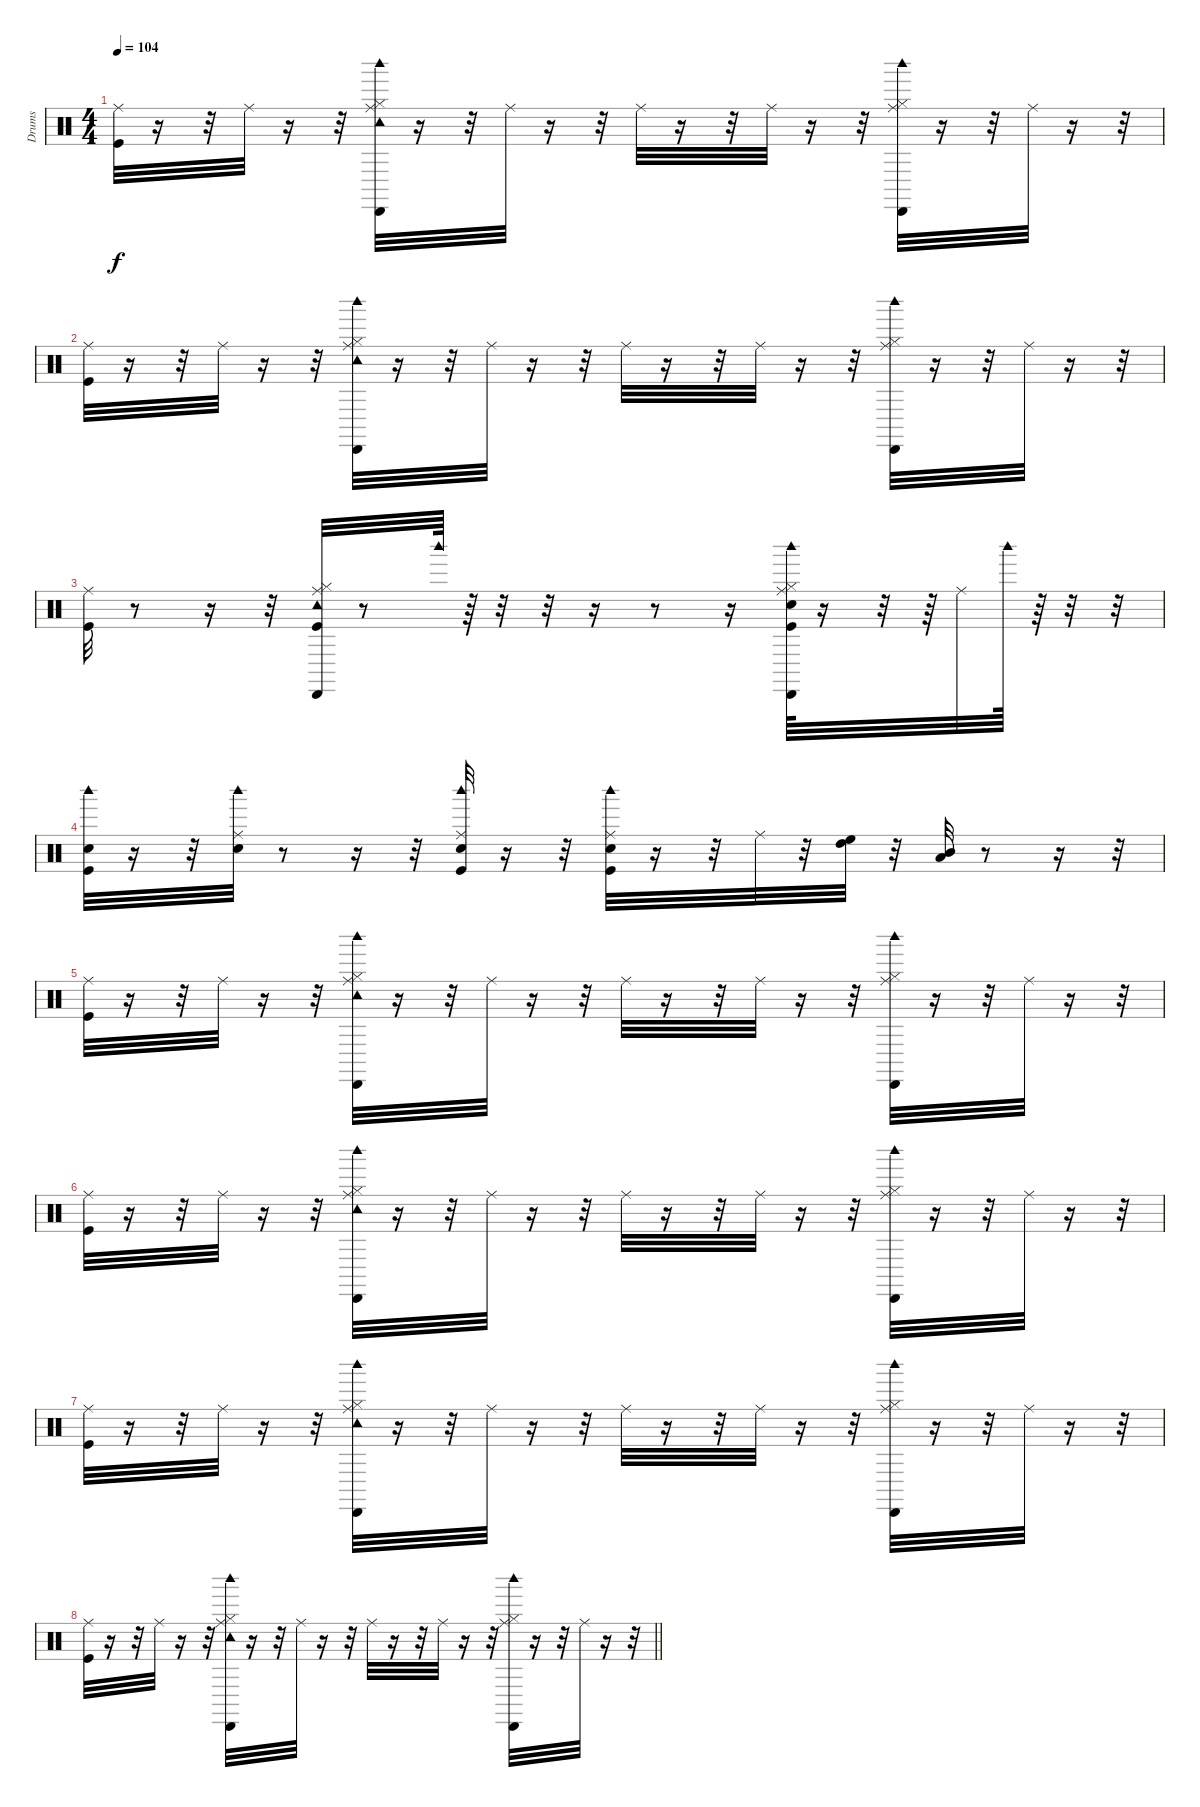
\track ("Drums" "Drums") {instrument percussion}
\staff {score}
\articulation defaults
\ts (4 4)
\tempo 104
\clef neutral
\ks c
("Kick (hit)" "Ride (middle)").32{dy f} r.16 r.32 "Ride (middle)".32 r.16 r.32 ("Hi-Hat (closed)" "Ride (middle)" "Tambourine (hit)" "Cabasa (hit)" "Woodblock high (hit)").32 r.16 r.32 "Ride (middle)".32 r.16 r.32 "Ride (middle)".32 r.16 r.32 "Ride (middle)".32 r.16 r.32 ("Hi-Hat (closed)" "Ride (middle)" "Cabasa (hit)" "Woodblock high (hit)").32 r.16 r.32 "Ride (middle)".32 r.16 r.32 |
("Kick (hit)" "Ride (middle)").32 r.16 r.32 "Ride (middle)".32 r.16 r.32 ("Hi-Hat (closed)" "Ride (middle)" "Tambourine (hit)" "Cabasa (hit)" "Woodblock high (hit)").32 r.16 r.32 "Ride (middle)".32 r.16 r.32 "Ride (middle)".32 r.16 r.32 "Ride (middle)".32 r.16 r.32 ("Hi-Hat (closed)" "Ride (middle)" "Cabasa (hit)" "Woodblock high (hit)").32 r.16 r.32 "Ride (middle)".32 r.16 r.32 |
("Kick (hit)" "Ride (middle)").32 r.8 r.16 r.32 ("Kick (hit)" "Hi-Hat (closed)" "Ride (middle)" "Tambourine (hit)" "Cabasa (hit)").32 r.8 "Woodblock high (hit)".64 r.64 r.32 r.32 r.16 r.8 r.16 ("Kick (hit)" "Snare (hit) 2" "Hi-Hat (closed)" "Ride (middle)" "Cabasa (hit)" "Woodblock high (hit)").64 r.16 r.32 r.64 "Ride (middle)".32 "Woodblock high (hit)".64 r.64 r.32 r.32 |
("Kick (hit)" "Snare (hit) 2" "Woodblock high (hit)").32 r.16 r.32 ("Snare (hit) 2" "Ride (middle)" "Woodblock high (hit)").32 r.8 r.16 r.32 ("Kick (hit)" "Snare (hit) 2" "Ride (middle)" "Woodblock high (hit)").32 r.16 r.32 ("Kick (hit)" "Snare (hit) 2" "Ride (middle)" "Woodblock high (hit)").32 r.16 r.32 "Ride (middle)".32 r.32 ("High Tom (hit)" "High Floor Tom (hit)").32 r.32 ("Low Tom (hit)" "Mid Tom (hit)").32 r.8 r.16 r.32 |
("Kick (hit)" "Ride (middle)").32 r.16 r.32 "Ride (middle)".32 r.16 r.32 ("Hi-Hat (closed)" "Ride (middle)" "Tambourine (hit)" "Cabasa (hit)" "Woodblock high (hit)").32 r.16 r.32 "Ride (middle)".32 r.16 r.32 "Ride (middle)".32 r.16 r.32 "Ride (middle)".32 r.16 r.32 ("Hi-Hat (closed)" "Ride (middle)" "Cabasa (hit)" "Woodblock high (hit)").32 r.16 r.32 "Ride (middle)".32 r.16 r.32 |
("Kick (hit)" "Ride (middle)").32 r.16 r.32 "Ride (middle)".32 r.16 r.32 ("Hi-Hat (closed)" "Ride (middle)" "Tambourine (hit)" "Cabasa (hit)" "Woodblock high (hit)").32 r.16 r.32 "Ride (middle)".32 r.16 r.32 "Ride (middle)".32 r.16 r.32 "Ride (middle)".32 r.16 r.32 ("Hi-Hat (closed)" "Ride (middle)" "Cabasa (hit)" "Woodblock high (hit)").32 r.16 r.32 "Ride (middle)".32 r.16 r.32 |
("Kick (hit)" "Ride (middle)").32 r.16 r.32 "Ride (middle)".32 r.16 r.32 ("Hi-Hat (closed)" "Ride (middle)" "Tambourine (hit)" "Cabasa (hit)" "Woodblock high (hit)").32 r.16 r.32 "Ride (middle)".32 r.16 r.32 "Ride (middle)".32 r.16 r.32 "Ride (middle)".32 r.16 r.32 ("Hi-Hat (closed)" "Ride (middle)" "Cabasa (hit)" "Woodblock high (hit)").32 r.16 r.32 "Ride (middle)".32 r.16 r.32 |
\barLineRight lightlight
("Kick (hit)" "Ride (middle)").32 r.16 r.32 "Ride (middle)".32 r.16 r.32 ("Hi-Hat (closed)" "Ride (middle)" "Tambourine (hit)" "Cabasa (hit)" "Woodblock high (hit)").32 r.16 r.32 "Ride (middle)".32 r.16 r.32 "Ride (middle)".32 r.16 r.32 "Ride (middle)".32 r.16 r.32 ("Hi-Hat (closed)" "Ride (middle)" "Cabasa (hit)" "Woodblock high (hit)").32 r.16 r.32 "Ride (middle)".32 r.16 r.32
